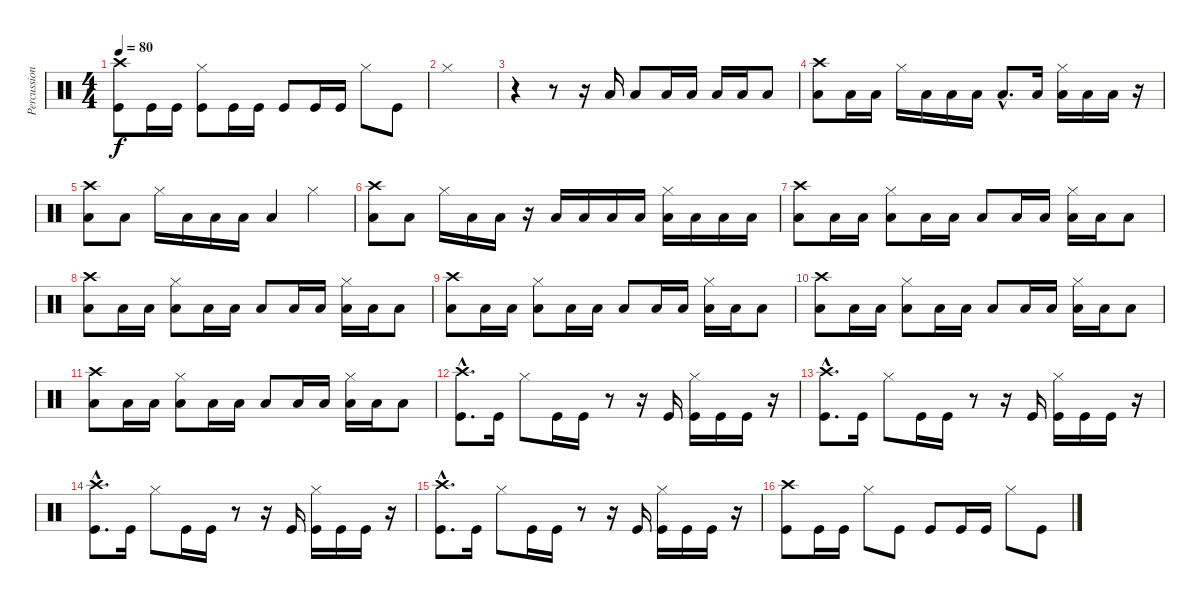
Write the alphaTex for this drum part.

\track ("Percussion" "Percussion") {instrument percussion}
\staff {score}
\articulation defaults
\ts (4 4)
\tempo 80
\clef neutral
\ks c
("Crash high (hit)" "Kick (hit)").8{dy f} "Kick (hit)".16 "Kick (hit)".16 ("Hi-Hat (closed)" "Kick (hit)").8 "Kick (hit)".16 "Kick (hit)".16 "Kick (hit)".8 "Kick (hit)".16 "Kick (hit)".16 "Hi-Hat (closed)".8 "Kick (hit)".8 |
"Hi-Hat (closed)".1 |
r.4 r.8 r.16 "Low Tom (hit)".16 "Low Tom (hit)".8 "Low Tom (hit)".16 "Low Tom (hit)".16 "Low Tom (hit)".16 "Low Tom (hit)".16 "Low Tom (hit)".8 |
("Crash high (hit)" "Low Tom (hit)").8 "Low Tom (hit)".16 "Low Tom (hit)".16 "Hi-Hat (closed)".16 "Low Tom (hit)".16 "Low Tom (hit)".16 "Low Tom (hit)".16 "Low Tom (hit)"{hac}.8{d} "Low Tom (hit)".16 ("Hi-Hat (closed)" "Low Tom (hit)").16 "Low Tom (hit)".16 "Low Tom (hit)".16 r.16 |
("Crash high (hit)" "Low Tom (hit)").8 "Low Tom (hit)".8 "Hi-Hat (closed)".16 "Low Tom (hit)".16 "Low Tom (hit)".16 "Low Tom (hit)".16 "Low Tom (hit)".4 "Hi-Hat (closed)".4 |
("Crash high (hit)" "Low Tom (hit)").8 "Low Tom (hit)".8 "Hi-Hat (closed)".16 "Low Tom (hit)".16 "Low Tom (hit)".16 r.16 "Low Tom (hit)".16 "Low Tom (hit)".16 "Low Tom (hit)".16 "Low Tom (hit)".16 ("Hi-Hat (closed)" "Low Tom (hit)").16 "Low Tom (hit)".16 "Low Tom (hit)".16 "Low Tom (hit)".16 |
("Crash high (hit)" "Low Tom (hit)").8 "Low Tom (hit)".16 "Low Tom (hit)".16 ("Hi-Hat (closed)" "Low Tom (hit)").8 "Low Tom (hit)".16 "Low Tom (hit)".16 "Low Tom (hit)".8 "Low Tom (hit)".16 "Low Tom (hit)".16 ("Hi-Hat (closed)" "Low Tom (hit)").16 "Low Tom (hit)".16 "Low Tom (hit)".8 |
("Crash high (hit)" "Low Tom (hit)").8 "Low Tom (hit)".16 "Low Tom (hit)".16 ("Hi-Hat (closed)" "Low Tom (hit)").8 "Low Tom (hit)".16 "Low Tom (hit)".16 "Low Tom (hit)".8 "Low Tom (hit)".16 "Low Tom (hit)".16 ("Hi-Hat (closed)" "Low Tom (hit)").16 "Low Tom (hit)".16 "Low Tom (hit)".8 |
("Crash high (hit)" "Low Tom (hit)").8 "Low Tom (hit)".16 "Low Tom (hit)".16 ("Hi-Hat (closed)" "Low Tom (hit)").8 "Low Tom (hit)".16 "Low Tom (hit)".16 "Low Tom (hit)".8 "Low Tom (hit)".16 "Low Tom (hit)".16 ("Hi-Hat (closed)" "Low Tom (hit)").16 "Low Tom (hit)".16 "Low Tom (hit)".8 |
("Crash high (hit)" "Low Tom (hit)").8 "Low Tom (hit)".16 "Low Tom (hit)".16 ("Hi-Hat (closed)" "Low Tom (hit)").8 "Low Tom (hit)".16 "Low Tom (hit)".16 "Low Tom (hit)".8 "Low Tom (hit)".16 "Low Tom (hit)".16 ("Hi-Hat (closed)" "Low Tom (hit)").16 "Low Tom (hit)".16 "Low Tom (hit)".8 |
("Crash high (hit)" "Low Tom (hit)").8 "Low Tom (hit)".16 "Low Tom (hit)".16 ("Hi-Hat (closed)" "Low Tom (hit)").8 "Low Tom (hit)".16 "Low Tom (hit)".16 "Low Tom (hit)".8 "Low Tom (hit)".16 "Low Tom (hit)".16 ("Hi-Hat (closed)" "Low Tom (hit)").16 "Low Tom (hit)".16 "Low Tom (hit)".8 |
("Crash high (hit)"{hac} "Kick (hit)"{hac}).8{d} "Kick (hit)".16 "Hi-Hat (closed)".8 "Kick (hit)".16 "Kick (hit)".16 r.8 r.16 "Kick (hit)".16 ("Hi-Hat (closed)" "Kick (hit)").16 "Kick (hit)".16 "Kick (hit)".16 r.16 |
("Crash high (hit)"{hac} "Kick (hit)"{hac}).8{d} "Kick (hit)".16 "Hi-Hat (closed)".8 "Kick (hit)".16 "Kick (hit)".16 r.8 r.16 "Kick (hit)".16 ("Hi-Hat (closed)" "Kick (hit)").16 "Kick (hit)".16 "Kick (hit)".16 r.16 |
("Crash high (hit)"{hac} "Kick (hit)"{hac}).8{d} "Kick (hit)".16 "Hi-Hat (closed)".8 "Kick (hit)".16 "Kick (hit)".16 r.8 r.16 "Kick (hit)".16 ("Hi-Hat (closed)" "Kick (hit)").16 "Kick (hit)".16 "Kick (hit)".16 r.16 |
("Crash high (hit)"{hac} "Kick (hit)"{hac}).8{d} "Kick (hit)".16 "Hi-Hat (closed)".8 "Kick (hit)".16 "Kick (hit)".16 r.8 r.16 "Kick (hit)".16 ("Hi-Hat (closed)" "Kick (hit)").16 "Kick (hit)".16 "Kick (hit)".16 r.16 |
("Crash high (hit)" "Kick (hit)").8 "Kick (hit)".16 "Kick (hit)".16 "Hi-Hat (closed)".8 "Kick (hit)".8 "Kick (hit)".8 "Kick (hit)".16 "Kick (hit)".16 "Hi-Hat (closed)".8 "Kick (hit)".8
